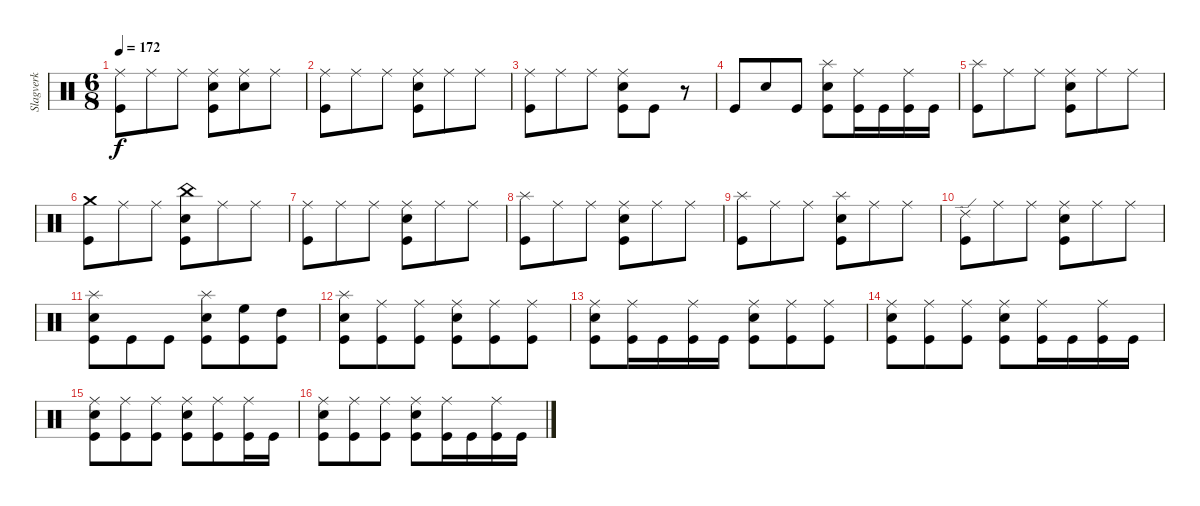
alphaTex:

\track ("Slagverk" "Slagverk") {instrument percussion}
\staff {score}
\articulation defaults
\ts (6 8)
\tempo 172
\clef neutral
\ks c
("Ride (middle)" "Kick (hit)").8{dy f} "Ride (middle)".8 "Ride (middle)".8 ("Ride (middle)" "Snare (hit) 2" "Kick (hit)").8 ("Ride (middle)" "Snare (hit) 2").8 "Ride (middle)".8 |
("Ride (middle)" "Kick (hit)").8 "Ride (middle)".8 "Ride (middle)".8 ("Ride (middle)" "Snare (hit) 2" "Kick (hit)").8 "Ride (middle)".8 "Ride (middle)".8 |
("Ride (middle)" "Kick (hit)").8 "Ride (middle)".8 "Ride (middle)".8 ("Ride (middle)" "Snare (hit) 2" "Kick (hit)").8 "Kick (hit)".8 r.8 |
"Kick (hit)".8 "Snare (hit) 2".8 "Kick (hit)".8 ("Splash (hit)" "Snare (hit) 2" "Kick (hit)").8 ("Ride (middle)" "Kick (hit)").16 "Kick (hit)".16 ("Ride (middle)" "Kick (hit)").16 "Kick (hit)".16 |
("Splash (hit)" "Kick (hit)").8 "Ride (middle)".8 "Ride (middle)".8 ("Ride (middle)" "Snare (hit) 2" "Kick (hit)").8 "Ride (middle)".8 "Ride (middle)".8 |
("Crash medium (hit)" "Kick (hit)").8 "Ride (middle)".8 "Ride (middle)".8 ("China (hit)" "Snare (hit) 2" "Kick (hit)").8 "Ride (middle)".8 "Ride (middle)".8 |
("Ride (middle)" "Kick (hit)").8 "Ride (middle)".8 "Ride (middle)".8 ("Ride (middle)" "Snare (hit) 2" "Kick (hit)").8 "Ride (middle)".8 "Ride (middle)".8 |
("Splash (hit)" "Kick (hit)").8 "Ride (middle)".8 "Ride (middle)".8 ("Ride (middle)" "Snare (hit) 2" "Kick (hit)").8 "Ride (middle)".8 "Ride (middle)".8 |
("Splash (hit)" "Kick (hit)").8 "Ride (middle)".8 "Ride (middle)".8 ("Splash (hit)" "Snare (hit) 2" "Kick (hit)").8 "Ride (middle)".8 "Ride (middle)".8 |
("Ride (edge) 2" "Kick (hit)").8 "Ride (middle)".8 "Ride (middle)".8 ("Ride (middle)" "Snare (hit) 2" "Kick (hit)").8 "Ride (middle)".8 "Ride (middle)".8 |
("Splash (hit)" "Snare (hit) 2" "Kick (hit)").8 "Kick (hit)".8 "Kick (hit)".8 ("Splash (hit)" "Snare (hit) 2" "Kick (hit)").8 ("High Floor Tom (hit)" "Kick (hit)").8 ("High Tom (hit)" "Kick (hit)").8 |
("Splash (hit)" "Snare (hit) 2" "Kick (hit)").8 ("Ride (middle)" "Kick (hit)").8 ("Ride (middle)" "Kick (hit)").8 ("Ride (middle)" "Snare (hit) 2" "Kick (hit)").8 ("Ride (middle)" "Kick (hit)").8 ("Ride (middle)" "Kick (hit)").8 |
("Ride (middle)" "Snare (hit) 2" "Kick (hit)").8 ("Ride (middle)" "Kick (hit)").16 "Kick (hit)".16 ("Ride (middle)" "Kick (hit)").16 "Kick (hit)".16 ("Ride (middle)" "Snare (hit) 2" "Kick (hit)").8 ("Ride (middle)" "Kick (hit)").8 ("Ride (middle)" "Kick (hit)").8 |
("Ride (middle)" "Snare (hit) 2" "Kick (hit)").8 ("Ride (middle)" "Kick (hit)").8 ("Ride (middle)" "Kick (hit)").8 ("Ride (middle)" "Snare (hit) 2" "Kick (hit)").8 ("Ride (middle)" "Kick (hit)").16 "Kick (hit)".16 ("Ride (middle)" "Kick (hit)").16 "Kick (hit)".16 |
("Ride (middle)" "Snare (hit) 2" "Kick (hit)").8 ("Ride (middle)" "Kick (hit)").8 ("Ride (middle)" "Kick (hit)").8 ("Ride (middle)" "Snare (hit) 2" "Kick (hit)").8 ("Ride (middle)" "Kick (hit)").8 ("Ride (middle)" "Kick (hit)").16 "Kick (hit)".16 |
("Ride (middle)" "Snare (hit) 2" "Kick (hit)").8 ("Ride (middle)" "Kick (hit)").8 ("Ride (middle)" "Kick (hit)").8 ("Ride (middle)" "Snare (hit) 2" "Kick (hit)").8 ("Ride (middle)" "Kick (hit)").16 "Kick (hit)".16 ("Ride (middle)" "Kick (hit)").16 "Kick (hit)".16
